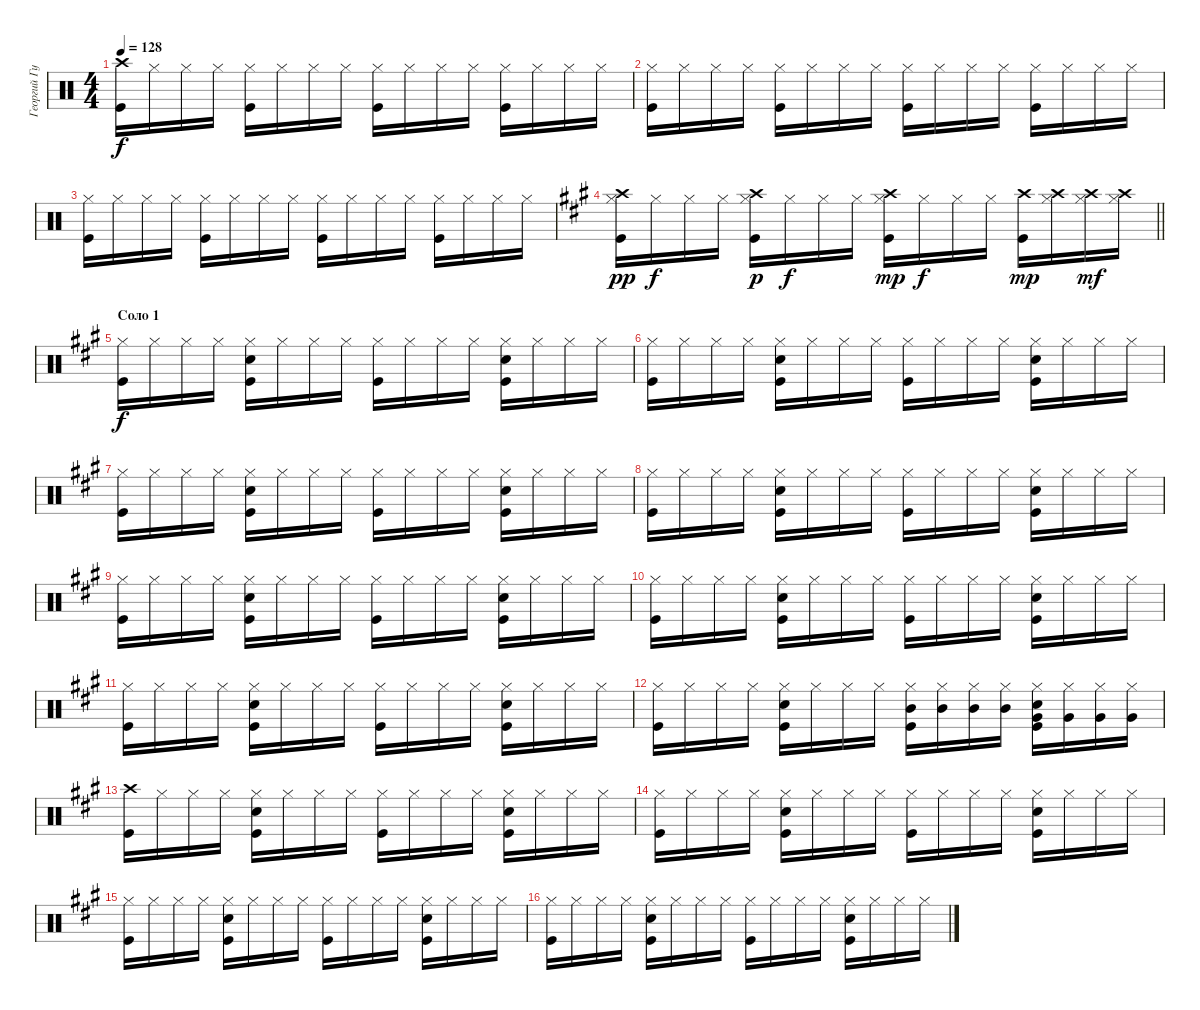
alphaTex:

\track ("Георгий Гурьянов" "Георгий Гу") {instrument percussion}
\staff {score}
\articulation defaults
\ts (4 4)
\tempo 128
\clef neutral
\ks c
("Kick (hit)" "Crash high (hit)").16{dy f} "Hi-Hat (closed)".16 "Hi-Hat (closed)".16 "Hi-Hat (closed)".16 ("Kick (hit)" "Hi-Hat (closed)").16 "Hi-Hat (closed)".16 "Hi-Hat (closed)".16 "Hi-Hat (closed)".16 ("Hi-Hat (closed)" "Kick (hit)").16 "Hi-Hat (closed)".16 "Hi-Hat (closed)".16 "Hi-Hat (closed)".16 ("Kick (hit)" "Hi-Hat (closed)").16 "Hi-Hat (closed)".16 "Hi-Hat (closed)".16 "Hi-Hat (closed)".16 |
("Hi-Hat (closed)" "Kick (hit)").16 "Hi-Hat (closed)".16 "Hi-Hat (closed)".16 "Hi-Hat (closed)".16 ("Kick (hit)" "Hi-Hat (closed)").16 "Hi-Hat (closed)".16 "Hi-Hat (closed)".16 "Hi-Hat (closed)".16 ("Hi-Hat (closed)" "Kick (hit)").16 "Hi-Hat (closed)".16 "Hi-Hat (closed)".16 "Hi-Hat (closed)".16 ("Kick (hit)" "Hi-Hat (closed)").16 "Hi-Hat (closed)".16 "Hi-Hat (closed)".16 "Hi-Hat (closed)".16 |
("Hi-Hat (closed)" "Kick (hit)").16 "Hi-Hat (closed)".16 "Hi-Hat (closed)".16 "Hi-Hat (closed)".16 ("Kick (hit)" "Hi-Hat (closed)").16 "Hi-Hat (closed)".16 "Hi-Hat (closed)".16 "Hi-Hat (closed)".16 ("Hi-Hat (closed)" "Kick (hit)").16 "Hi-Hat (closed)".16 "Hi-Hat (closed)".16 "Hi-Hat (closed)".16 ("Kick (hit)" "Hi-Hat (closed)").16 "Hi-Hat (closed)".16 "Hi-Hat (closed)".16 "Hi-Hat (closed)".16 |
\barLineRight lightlight
\ks f#minor
("Kick (hit)" "Crash high (hit)" "Hi-Hat (closed)").16{dy pp} "Hi-Hat (closed)".16{dy f} "Hi-Hat (closed)".16 "Hi-Hat (closed)".16 ("Kick (hit)" "Crash high (hit)" "Hi-Hat (closed)").16{dy p} "Hi-Hat (closed)".16{dy f} "Hi-Hat (closed)".16 "Hi-Hat (closed)".16 ("Kick (hit)" "Crash high (hit)" "Hi-Hat (closed)").16{dy mp} "Hi-Hat (closed)".16{dy f} "Hi-Hat (closed)".16 "Hi-Hat (closed)".16 ("Kick (hit)" "Crash high (hit)").16{dy mp} ("Hi-Hat (closed)" "Crash high (hit)").16 ("Hi-Hat (closed)" "Crash high (hit)").16{dy mf} ("Hi-Hat (closed)" "Crash high (hit)").16 |
\section ("" "Соло 1")
("Kick (hit)" "Hi-Hat (closed)").16{dy f} "Hi-Hat (closed)".16 "Hi-Hat (closed)".16 "Hi-Hat (closed)".16 ("Hi-Hat (closed)" "Snare (hit) 2" "Kick (hit)").16 "Hi-Hat (closed)".16 "Hi-Hat (closed)".16 "Hi-Hat (closed)".16 ("Hi-Hat (closed)" "Kick (hit)").16 "Hi-Hat (closed)".16 "Hi-Hat (closed)".16 "Hi-Hat (closed)".16 ("Hi-Hat (closed)" "Snare (hit) 2" "Kick (hit)").16 "Hi-Hat (closed)".16 "Hi-Hat (closed)".16 "Hi-Hat (closed)".16 |
("Hi-Hat (closed)" "Kick (hit)").16 "Hi-Hat (closed)".16 "Hi-Hat (closed)".16 "Hi-Hat (closed)".16 ("Hi-Hat (closed)" "Snare (hit) 2" "Kick (hit)").16 "Hi-Hat (closed)".16 "Hi-Hat (closed)".16 "Hi-Hat (closed)".16 ("Hi-Hat (closed)" "Kick (hit)").16 "Hi-Hat (closed)".16 "Hi-Hat (closed)".16 "Hi-Hat (closed)".16 ("Hi-Hat (closed)" "Snare (hit) 2" "Kick (hit)").16 "Hi-Hat (closed)".16 "Hi-Hat (closed)".16 "Hi-Hat (closed)".16 |
("Hi-Hat (closed)" "Kick (hit)").16 "Hi-Hat (closed)".16 "Hi-Hat (closed)".16 "Hi-Hat (closed)".16 ("Hi-Hat (closed)" "Snare (hit) 2" "Kick (hit)").16 "Hi-Hat (closed)".16 "Hi-Hat (closed)".16 "Hi-Hat (closed)".16 ("Hi-Hat (closed)" "Kick (hit)").16 "Hi-Hat (closed)".16 "Hi-Hat (closed)".16 "Hi-Hat (closed)".16 ("Hi-Hat (closed)" "Snare (hit) 2" "Kick (hit)").16 "Hi-Hat (closed)".16 "Hi-Hat (closed)".16 "Hi-Hat (closed)".16 |
("Hi-Hat (closed)" "Kick (hit)").16 "Hi-Hat (closed)".16 "Hi-Hat (closed)".16 "Hi-Hat (closed)".16 ("Hi-Hat (closed)" "Snare (hit) 2" "Kick (hit)").16 "Hi-Hat (closed)".16 "Hi-Hat (closed)".16 "Hi-Hat (closed)".16 ("Hi-Hat (closed)" "Kick (hit)").16 "Hi-Hat (closed)".16 "Hi-Hat (closed)".16 "Hi-Hat (closed)".16 ("Hi-Hat (closed)" "Snare (hit) 2" "Kick (hit)").16 "Hi-Hat (closed)".16 "Hi-Hat (closed)".16 "Hi-Hat (closed)".16 |
("Hi-Hat (closed)" "Kick (hit)").16 "Hi-Hat (closed)".16 "Hi-Hat (closed)".16 "Hi-Hat (closed)".16 ("Hi-Hat (closed)" "Snare (hit) 2" "Kick (hit)").16 "Hi-Hat (closed)".16 "Hi-Hat (closed)".16 "Hi-Hat (closed)".16 ("Hi-Hat (closed)" "Kick (hit)").16 "Hi-Hat (closed)".16 "Hi-Hat (closed)".16 "Hi-Hat (closed)".16 ("Hi-Hat (closed)" "Snare (hit) 2" "Kick (hit)").16 "Hi-Hat (closed)".16 "Hi-Hat (closed)".16 "Hi-Hat (closed)".16 |
("Hi-Hat (closed)" "Kick (hit)").16 "Hi-Hat (closed)".16 "Hi-Hat (closed)".16 "Hi-Hat (closed)".16 ("Hi-Hat (closed)" "Snare (hit) 2" "Kick (hit)").16 "Hi-Hat (closed)".16 "Hi-Hat (closed)".16 "Hi-Hat (closed)".16 ("Hi-Hat (closed)" "Kick (hit)").16 "Hi-Hat (closed)".16 "Hi-Hat (closed)".16 "Hi-Hat (closed)".16 ("Hi-Hat (closed)" "Snare (hit) 2" "Kick (hit)").16 "Hi-Hat (closed)".16 "Hi-Hat (closed)".16 "Hi-Hat (closed)".16 |
("Hi-Hat (closed)" "Kick (hit)").16 "Hi-Hat (closed)".16 "Hi-Hat (closed)".16 "Hi-Hat (closed)".16 ("Hi-Hat (closed)" "Snare (hit) 2" "Kick (hit)").16 "Hi-Hat (closed)".16 "Hi-Hat (closed)".16 "Hi-Hat (closed)".16 ("Hi-Hat (closed)" "Kick (hit)").16 "Hi-Hat (closed)".16 "Hi-Hat (closed)".16 "Hi-Hat (closed)".16 ("Hi-Hat (closed)" "Snare (hit) 2" "Kick (hit)").16 "Hi-Hat (closed)".16 "Hi-Hat (closed)".16 "Hi-Hat (closed)".16 |
("Hi-Hat (closed)" "Kick (hit)").16 "Hi-Hat (closed)".16 "Hi-Hat (closed)".16 "Hi-Hat (closed)".16 ("Hi-Hat (closed)" "Snare (hit) 2" "Kick (hit)").16 "Hi-Hat (closed)".16 "Hi-Hat (closed)".16 "Hi-Hat (closed)".16 ("Mid Tom (hit)" "Hi-Hat (closed)" "Kick (hit)").16 ("Mid Tom (hit)" "Hi-Hat (closed)").16 ("Mid Tom (hit)" "Hi-Hat (closed)").16 ("Mid Tom (hit)" "Hi-Hat (closed)").16 ("Very Low Tom (hit)" "Hi-Hat (closed)" "Snare (hit) 2" "Kick (hit)").16 ("Very Low Tom (hit)" "Hi-Hat (closed)").16 ("Very Low Tom (hit)" "Hi-Hat (closed)").16 ("Very Low Tom (hit)" "Hi-Hat (closed)").16 |
("Kick (hit)" "Crash high (hit)").16 "Hi-Hat (closed)".16 "Hi-Hat (closed)".16 "Hi-Hat (closed)".16 ("Hi-Hat (closed)" "Snare (hit) 2" "Kick (hit)").16 "Hi-Hat (closed)".16 "Hi-Hat (closed)".16 "Hi-Hat (closed)".16 ("Hi-Hat (closed)" "Kick (hit)").16 "Hi-Hat (closed)".16 "Hi-Hat (closed)".16 "Hi-Hat (closed)".16 ("Hi-Hat (closed)" "Snare (hit) 2" "Kick (hit)").16 "Hi-Hat (closed)".16 "Hi-Hat (closed)".16 "Hi-Hat (closed)".16 |
("Hi-Hat (closed)" "Kick (hit)").16 "Hi-Hat (closed)".16 "Hi-Hat (closed)".16 "Hi-Hat (closed)".16 ("Hi-Hat (closed)" "Snare (hit) 2" "Kick (hit)").16 "Hi-Hat (closed)".16 "Hi-Hat (closed)".16 "Hi-Hat (closed)".16 ("Hi-Hat (closed)" "Kick (hit)").16 "Hi-Hat (closed)".16 "Hi-Hat (closed)".16 "Hi-Hat (closed)".16 ("Hi-Hat (closed)" "Snare (hit) 2" "Kick (hit)").16 "Hi-Hat (closed)".16 "Hi-Hat (closed)".16 "Hi-Hat (closed)".16 |
("Hi-Hat (closed)" "Kick (hit)").16 "Hi-Hat (closed)".16 "Hi-Hat (closed)".16 "Hi-Hat (closed)".16 ("Hi-Hat (closed)" "Snare (hit) 2" "Kick (hit)").16 "Hi-Hat (closed)".16 "Hi-Hat (closed)".16 "Hi-Hat (closed)".16 ("Hi-Hat (closed)" "Kick (hit)").16 "Hi-Hat (closed)".16 "Hi-Hat (closed)".16 "Hi-Hat (closed)".16 ("Hi-Hat (closed)" "Snare (hit) 2" "Kick (hit)").16 "Hi-Hat (closed)".16 "Hi-Hat (closed)".16 "Hi-Hat (closed)".16 |
("Hi-Hat (closed)" "Kick (hit)").16 "Hi-Hat (closed)".16 "Hi-Hat (closed)".16 "Hi-Hat (closed)".16 ("Hi-Hat (closed)" "Snare (hit) 2" "Kick (hit)").16 "Hi-Hat (closed)".16 "Hi-Hat (closed)".16 "Hi-Hat (closed)".16 ("Hi-Hat (closed)" "Kick (hit)").16 "Hi-Hat (closed)".16 "Hi-Hat (closed)".16 "Hi-Hat (closed)".16 ("Hi-Hat (closed)" "Snare (hit) 2" "Kick (hit)").16 "Hi-Hat (closed)".16 "Hi-Hat (closed)".16 "Hi-Hat (closed)".16
